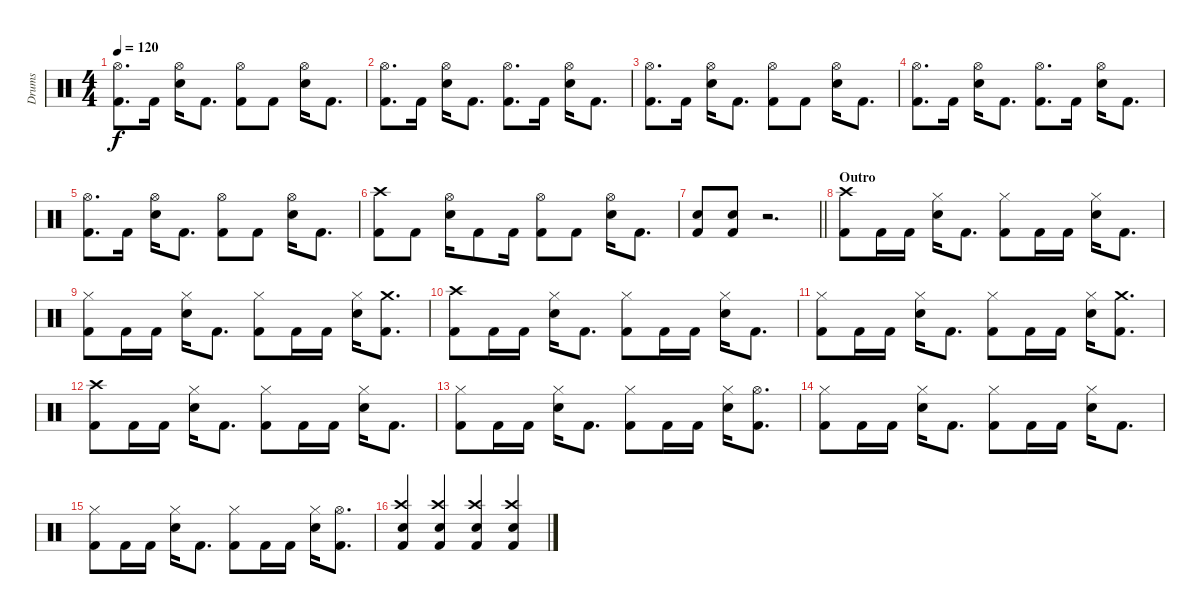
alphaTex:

\track ("Drums" "Drums") {instrument percussion}
\staff {score}
\articulation defaults
\ts (4 4)
\tempo 120
\clef neutral
\ks c
("Hi-Hat (open)" "Kick (hit) 2").8{d dy f} "Kick (hit) 2".16 ("Hi-Hat (open)" "Electric Snare (hit)").16 "Kick (hit) 2".8{d} ("Hi-Hat (open)" "Kick (hit) 2").8 "Kick (hit) 2".8 ("Hi-Hat (open)" "Electric Snare (hit)").16 "Kick (hit) 2".8{d} |
("Hi-Hat (open)" "Kick (hit) 2").8{d} "Kick (hit) 2".16 ("Hi-Hat (open)" "Electric Snare (hit)").16 "Kick (hit) 2".8{d} ("Hi-Hat (open)" "Kick (hit) 2").8{d} "Kick (hit) 2".16 ("Hi-Hat (open)" "Electric Snare (hit)").16 "Kick (hit) 2".8{d} |
("Hi-Hat (open)" "Kick (hit) 2").8{d} "Kick (hit) 2".16 ("Hi-Hat (open)" "Electric Snare (hit)").16 "Kick (hit) 2".8{d} ("Hi-Hat (open)" "Kick (hit) 2").8 "Kick (hit) 2".8 ("Hi-Hat (open)" "Electric Snare (hit)").16 "Kick (hit) 2".8{d} |
("Hi-Hat (open)" "Kick (hit) 2").8{d} "Kick (hit) 2".16 ("Hi-Hat (open)" "Electric Snare (hit)").16 "Kick (hit) 2".8{d} ("Hi-Hat (open)" "Kick (hit) 2").8{d} "Kick (hit) 2".16 ("Hi-Hat (open)" "Electric Snare (hit)").16 "Kick (hit) 2".8{d} |
("Hi-Hat (open)" "Kick (hit) 2").8{d} "Kick (hit) 2".16 ("Hi-Hat (open)" "Electric Snare (hit)").16 "Kick (hit) 2".8{d} ("Hi-Hat (open)" "Kick (hit) 2").8 "Kick (hit) 2".8 ("Hi-Hat (open)" "Electric Snare (hit)").16 "Kick (hit) 2".8{d} |
("Crash high (hit)" "Kick (hit) 2").8 "Kick (hit) 2".8 ("Hi-Hat (open)" "Electric Snare (hit)").16 "Kick (hit) 2".8 "Kick (hit) 2".16 ("Hi-Hat (open)" "Kick (hit) 2").8 "Kick (hit) 2".8 ("Hi-Hat (open)" "Electric Snare (hit)").16 "Kick (hit) 2".8{d} |
\barLineRight lightlight
("Snare (hit) 2" "Kick (hit) 2").8 ("Snare (hit) 2" "Kick (hit) 2").8 r.2{d} |
\section ("" "Outro")
("Crash high (hit)" "Kick (hit) 2").8 "Kick (hit) 2".16 "Kick (hit) 2".16 ("Hi-Hat (closed)" "Snare (hit) 2").16 "Kick (hit) 2".8{d} ("Hi-Hat (closed)" "Kick (hit) 2").8 "Kick (hit) 2".16 "Kick (hit) 2".16 ("Hi-Hat (closed)" "Snare (hit) 2").16 "Kick (hit) 2".8{d} |
("Hi-Hat (closed)" "Kick (hit) 2").8 "Kick (hit) 2".16 "Kick (hit) 2".16 ("Hi-Hat (closed)" "Snare (hit) 2").16 "Kick (hit) 2".8{d} ("Hi-Hat (closed)" "Kick (hit) 2").8 "Kick (hit) 2".16 "Kick (hit) 2".16 ("Hi-Hat (closed)" "Snare (hit) 2").16 ("Crash medium (hit)" "Kick (hit) 2").8{d} |
("Crash high (hit)" "Kick (hit) 2").8 "Kick (hit) 2".16 "Kick (hit) 2".16 ("Hi-Hat (closed)" "Snare (hit) 2").16 "Kick (hit) 2".8{d} ("Hi-Hat (closed)" "Kick (hit) 2").8 "Kick (hit) 2".16 "Kick (hit) 2".16 ("Hi-Hat (closed)" "Snare (hit) 2").16 "Kick (hit) 2".8{d} |
("Hi-Hat (closed)" "Kick (hit) 2").8 "Kick (hit) 2".16 "Kick (hit) 2".16 ("Hi-Hat (closed)" "Snare (hit) 2").16 "Kick (hit) 2".8{d} ("Hi-Hat (closed)" "Kick (hit) 2").8 "Kick (hit) 2".16 "Kick (hit) 2".16 ("Hi-Hat (closed)" "Snare (hit) 2").16 ("Crash medium (hit)" "Kick (hit) 2").8{d} |
("Crash high (hit)" "Kick (hit) 2").8 "Kick (hit) 2".16 "Kick (hit) 2".16 ("Hi-Hat (closed)" "Snare (hit) 2").16 "Kick (hit) 2".8{d} ("Hi-Hat (closed)" "Kick (hit) 2").8 "Kick (hit) 2".16 "Kick (hit) 2".16 ("Hi-Hat (closed)" "Snare (hit) 2").16 "Kick (hit) 2".8{d} |
("Hi-Hat (closed)" "Kick (hit) 2").8 "Kick (hit) 2".16 "Kick (hit) 2".16 ("Hi-Hat (closed)" "Snare (hit) 2").16 "Kick (hit) 2".8{d} ("Hi-Hat (closed)" "Kick (hit) 2").8 "Kick (hit) 2".16 "Kick (hit) 2".16 ("Hi-Hat (closed)" "Snare (hit) 2").16 ("Hi-Hat (open)" "Kick (hit) 2").8{d} |
("Hi-Hat (closed)" "Kick (hit) 2").8 "Kick (hit) 2".16 "Kick (hit) 2".16 ("Hi-Hat (closed)" "Snare (hit) 2").16 "Kick (hit) 2".8{d} ("Hi-Hat (closed)" "Kick (hit) 2").8 "Kick (hit) 2".16 "Kick (hit) 2".16 ("Hi-Hat (closed)" "Snare (hit) 2").16 "Kick (hit) 2".8{d} |
("Hi-Hat (closed)" "Kick (hit) 2").8 "Kick (hit) 2".16 "Kick (hit) 2".16 ("Hi-Hat (closed)" "Snare (hit) 2").16 "Kick (hit) 2".8{d} ("Hi-Hat (closed)" "Kick (hit) 2").8 "Kick (hit) 2".16 "Kick (hit) 2".16 ("Hi-Hat (closed)" "Snare (hit) 2").16 ("Hi-Hat (open)" "Kick (hit) 2").8{d} |
("Crash high (hit)" "Snare (hit) 2" "Kick (hit) 2").4 ("Crash high (hit)" "Snare (hit) 2" "Kick (hit) 2").4 ("Crash high (hit)" "Snare (hit) 2" "Kick (hit) 2").4 ("Crash high (hit)" "Snare (hit) 2" "Kick (hit) 2").4
